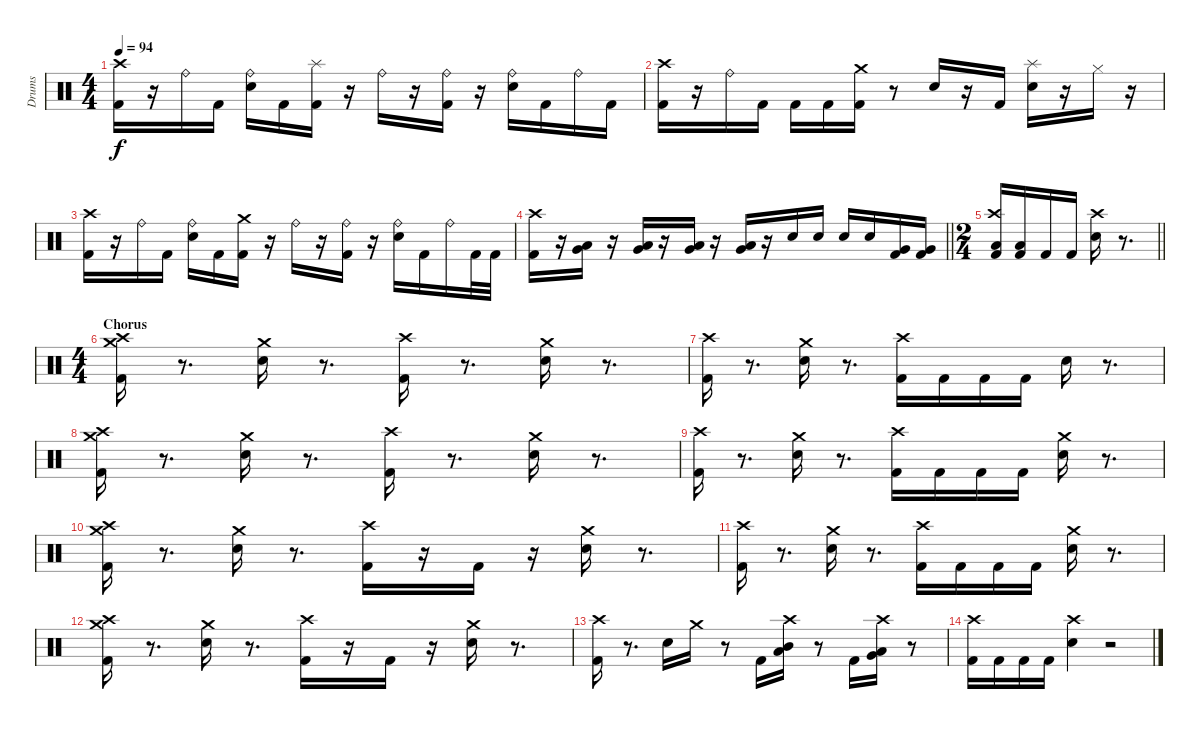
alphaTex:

\track ("Drums" "Drums") {instrument percussion}
\staff {score}
\articulation defaults
\ts (4 4)
\tempo 94
\clef neutral
\ks c
("Kick (hit) 2" "Crash high (hit)").16{dy f} r.16 "Ride (bell)".16 "Kick (hit) 2".16 ("Snare (hit) 2" "Ride (bell)").16 "Kick (hit) 2".16 ("Kick (hit) 2" "Splash (hit)").16 r.16 "Ride (bell)".16 r.16 ("Kick (hit) 2" "Ride (bell)").16 r.16 ("Snare (hit) 2" "Ride (bell)").16 "Kick (hit) 2".16 "Ride (bell)".16 "Kick (hit) 2".16 |
("Kick (hit) 2" "Crash high (hit)").16 r.16 "Ride (bell)".16 "Kick (hit) 2".16 "Kick (hit) 2".16 "Kick (hit) 2".16 ("Kick (hit) 2" "Crash medium (hit)").16 r.8 "Snare (hit) 2".16 r.16 "Kick (hit) 2".16 ("Snare (hit) 2" "Splash (hit)").16 r.16 "Hi-Hat (closed)".16 r.16 |
("Kick (hit) 2" "Crash high (hit)").16 r.16 "Ride (bell)".16 "Kick (hit) 2".16 ("Snare (hit) 2" "Ride (bell)").16 "Kick (hit) 2".16 ("Kick (hit) 2" "Crash medium (hit)").16 r.16 "Ride (bell)".16 r.16 ("Kick (hit) 2" "Ride (bell)").16 r.16 ("Snare (hit) 2" "Ride (bell)").16 "Kick (hit) 2".16 "Ride (bell)".16 "Kick (hit) 2".32 "Kick (hit) 2".32 |
\barLineRight lightlight
("Kick (hit) 2" "Crash high (hit)").16 r.16 ("Low Floor Tom (hit)" "Very Low Tom (hit)").16 r.16 ("Low Floor Tom (hit)" "Very Low Tom (hit)").16 r.16 ("Low Floor Tom (hit)" "Very Low Tom (hit)").16 r.16 ("Low Floor Tom (hit)" "Very Low Tom (hit)").16 r.16 "Snare (hit) 2".16 "Snare (hit) 2".16 "Snare (hit) 2".16 "Snare (hit) 2".16 ("Kick (hit) 2" "Very Low Tom (hit)").16 ("Kick (hit) 2" "Very Low Tom (hit)").16 |
\ts (2 4)
\barLineRight lightlight
("Kick (hit) 2" "Low Floor Tom (hit)" "Crash high (hit)").16 ("Kick (hit) 2" "Low Floor Tom (hit)").16 "Kick (hit) 2".16 "Kick (hit) 2".16 ("Snare (hit) 2" "Crash high (hit)").16 r.8{d} |
\ts (4 4)
\section ("" "Chorus")
("Kick (hit) 2" "Crash high (hit)" "Crash medium (hit)").16 r.8{d} ("Snare (hit) 2" "Crash medium (hit)").16 r.8{d} ("Kick (hit) 2" "Crash high (hit)").16 r.8{d} ("Snare (hit) 2" "Crash medium (hit)").16 r.8{d} |
("Kick (hit) 2" "Crash high (hit)").16 r.8{d} ("Snare (hit) 2" "Crash medium (hit)").16 r.8{d} ("Kick (hit) 2" "Crash high (hit)").16 "Kick (hit) 2".16 "Kick (hit) 2".16 "Kick (hit) 2".16 "Snare (hit) 2".16 r.8{d} |
("Kick (hit) 2" "Crash high (hit)" "Crash medium (hit)").16 r.8{d} ("Snare (hit) 2" "Crash medium (hit)").16 r.8{d} ("Kick (hit) 2" "Crash high (hit)").16 r.8{d} ("Snare (hit) 2" "Crash medium (hit)").16 r.8{d} |
("Kick (hit) 2" "Crash high (hit)").16 r.8{d} ("Snare (hit) 2" "Crash medium (hit)").16 r.8{d} ("Kick (hit) 2" "Crash high (hit)").16 "Kick (hit) 2".16 "Kick (hit) 2".16 "Kick (hit) 2".16 ("Snare (hit) 2" "Crash medium (hit)").16 r.8{d} |
("Kick (hit) 2" "Crash high (hit)" "Crash medium (hit)").16 r.8{d} ("Snare (hit) 2" "Crash medium (hit)").16 r.8{d} ("Kick (hit) 2" "Crash high (hit)").16 r.16 "Kick (hit) 2".16 r.16 ("Snare (hit) 2" "Crash medium (hit)").16 r.8{d} |
("Kick (hit) 2" "Crash high (hit)").16 r.8{d} ("Snare (hit) 2" "Crash medium (hit)").16 r.8{d} ("Kick (hit) 2" "Crash high (hit)").16 "Kick (hit) 2".16 "Kick (hit) 2".16 "Kick (hit) 2".16 ("Snare (hit) 2" "Crash medium (hit)").16 r.8{d} |
("Kick (hit) 2" "Crash high (hit)" "Crash medium (hit)").16 r.8{d} ("Snare (hit) 2" "Crash medium (hit)").16 r.8{d} ("Kick (hit) 2" "Crash high (hit)").16 r.16 "Kick (hit) 2".16 r.16 ("Snare (hit) 2" "Crash medium (hit)").16 r.8{d} |
("Kick (hit) 2" "Crash high (hit)").16 r.8{d} "Snare (hit) 2".16 "Crash medium (hit)".16 r.8 "Kick (hit) 2".16 ("Low Tom (hit)" "Mid Tom (hit)" "Crash high (hit)").16 r.8 "Kick (hit) 2".16 ("Very Low Tom (hit)" "Low Tom (hit)" "Crash high (hit)").16 r.8 |
("Kick (hit) 2" "Crash high (hit)").16 "Kick (hit) 2".16 "Kick (hit) 2".16 "Kick (hit) 2".16 ("Snare (hit) 2" "Crash high (hit)").4 r.2
